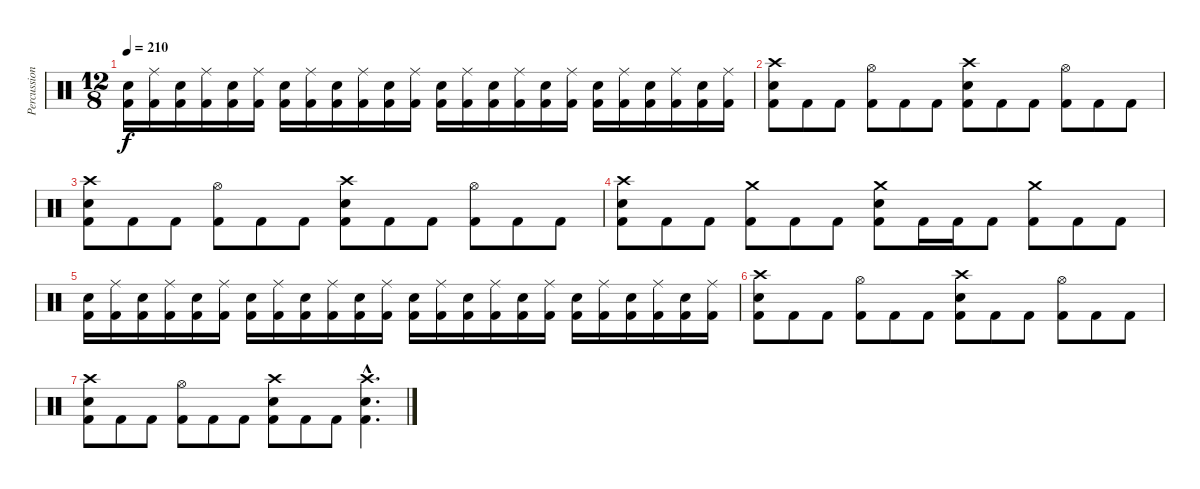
\track ("Percussion" "Percussion") {instrument percussion}
\staff {score}
\articulation defaults
\ts (12 8)
\tempo 210
\clef neutral
\ks c
("Snare (hit) 2" "Kick (hit) 2").16{dy f} ("Ride (middle)" "Kick (hit) 2").16 ("Snare (hit) 2" "Kick (hit) 2").16 ("Ride (middle)" "Kick (hit) 2").16 ("Snare (hit) 2" "Kick (hit) 2").16 ("Ride (middle)" "Kick (hit) 2").16 ("Snare (hit) 2" "Kick (hit) 2").16 ("Ride (middle)" "Kick (hit) 2").16 ("Snare (hit) 2" "Kick (hit) 2").16 ("Ride (middle)" "Kick (hit) 2").16 ("Snare (hit) 2" "Kick (hit) 2").16 ("Ride (middle)" "Kick (hit) 2").16 ("Snare (hit) 2" "Kick (hit) 2").16 ("Ride (middle)" "Kick (hit) 2").16 ("Snare (hit) 2" "Kick (hit) 2").16 ("Ride (middle)" "Kick (hit) 2").16 ("Snare (hit) 2" "Kick (hit) 2").16 ("Ride (middle)" "Kick (hit) 2").16 ("Snare (hit) 2" "Kick (hit) 2").16 ("Ride (middle)" "Kick (hit) 2").16 ("Snare (hit) 2" "Kick (hit) 2").16 ("Ride (middle)" "Kick (hit) 2").16 ("Snare (hit) 2" "Kick (hit) 2").16 ("Ride (middle)" "Kick (hit) 2").16 |
("Crash high (hit)" "Snare (hit) 2" "Kick (hit) 2").8 "Kick (hit) 2".8 "Kick (hit) 2".8 ("Hi-Hat (open)" "Kick (hit) 2").8 "Kick (hit) 2".8 "Kick (hit) 2".8 ("Crash high (hit)" "Snare (hit) 2" "Kick (hit) 2").8 "Kick (hit) 2".8 "Kick (hit) 2".8 ("Hi-Hat (open)" "Kick (hit) 2").8 "Kick (hit) 2".8 "Kick (hit) 2".8 |
("Crash high (hit)" "Snare (hit) 2" "Kick (hit) 2").8 "Kick (hit) 2".8 "Kick (hit) 2".8 ("Hi-Hat (open)" "Kick (hit) 2").8 "Kick (hit) 2".8 "Kick (hit) 2".8 ("Crash high (hit)" "Snare (hit) 2" "Kick (hit) 2").8 "Kick (hit) 2".8 "Kick (hit) 2".8 ("Hi-Hat (open)" "Kick (hit) 2").8 "Kick (hit) 2".8 "Kick (hit) 2".8 |
("Crash high (hit)" "Snare (hit) 2" "Kick (hit) 2").8 "Kick (hit) 2".8 "Kick (hit) 2".8 ("Crash medium (hit)" "Kick (hit) 2").8 "Kick (hit) 2".8 "Kick (hit) 2".8 ("Crash medium (hit)" "Snare (hit) 2" "Kick (hit) 2").8 "Kick (hit) 2".16 "Kick (hit) 2".16 "Kick (hit) 2".8 ("Crash medium (hit)" "Kick (hit) 2").8 "Kick (hit) 2".8 "Kick (hit) 2".8 |
("Snare (hit) 2" "Kick (hit) 2").16 ("Ride (middle)" "Kick (hit) 2").16 ("Snare (hit) 2" "Kick (hit) 2").16 ("Ride (middle)" "Kick (hit) 2").16 ("Snare (hit) 2" "Kick (hit) 2").16 ("Ride (middle)" "Kick (hit) 2").16 ("Snare (hit) 2" "Kick (hit) 2").16 ("Ride (middle)" "Kick (hit) 2").16 ("Snare (hit) 2" "Kick (hit) 2").16 ("Ride (middle)" "Kick (hit) 2").16 ("Snare (hit) 2" "Kick (hit) 2").16 ("Ride (middle)" "Kick (hit) 2").16 ("Snare (hit) 2" "Kick (hit) 2").16 ("Ride (middle)" "Kick (hit) 2").16 ("Snare (hit) 2" "Kick (hit) 2").16 ("Ride (middle)" "Kick (hit) 2").16 ("Snare (hit) 2" "Kick (hit) 2").16 ("Ride (middle)" "Kick (hit) 2").16 ("Snare (hit) 2" "Kick (hit) 2").16 ("Ride (middle)" "Kick (hit) 2").16 ("Snare (hit) 2" "Kick (hit) 2").16 ("Ride (middle)" "Kick (hit) 2").16 ("Snare (hit) 2" "Kick (hit) 2").16 ("Ride (middle)" "Kick (hit) 2").16 |
("Crash high (hit)" "Snare (hit) 2" "Kick (hit) 2").8 "Kick (hit) 2".8 "Kick (hit) 2".8 ("Hi-Hat (open)" "Kick (hit) 2").8 "Kick (hit) 2".8 "Kick (hit) 2".8 ("Crash high (hit)" "Snare (hit) 2" "Kick (hit) 2").8 "Kick (hit) 2".8 "Kick (hit) 2".8 ("Hi-Hat (open)" "Kick (hit) 2").8 "Kick (hit) 2".8 "Kick (hit) 2".8 |
("Crash high (hit)" "Snare (hit) 2" "Kick (hit) 2").8 "Kick (hit) 2".8 "Kick (hit) 2".8 ("Hi-Hat (open)" "Kick (hit) 2").8 "Kick (hit) 2".8 "Kick (hit) 2".8 ("Crash high (hit)" "Snare (hit) 2" "Kick (hit) 2").8 "Kick (hit) 2".8 "Kick (hit) 2".8 ("Crash high (hit)"{hac} "Snare (hit) 2"{hac} "Kick (hit) 2"{hac}).4{d}
